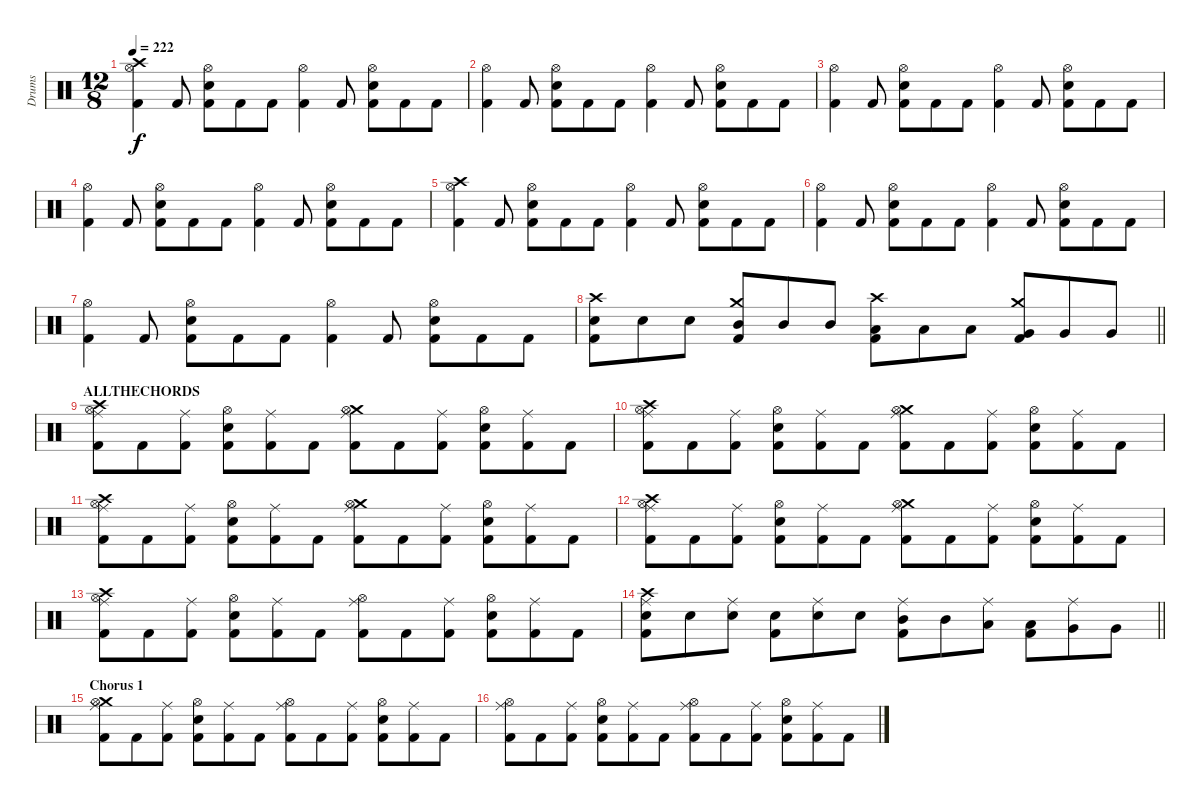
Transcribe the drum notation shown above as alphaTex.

\track ("Drums" "Drums") {instrument percussion}
\staff {score}
\articulation defaults
\ts (12 8)
\tempo 222
\clef neutral
\ks c
("Crash high (hit)" "Hi-Hat (open)" "Kick (hit) 2").4{dy f} "Kick (hit) 2".8 ("Hi-Hat (open)" "Snare (hit) 2" "Kick (hit) 2").8 "Kick (hit) 2".8 "Kick (hit) 2".8 ("Hi-Hat (open)" "Kick (hit) 2").4 "Kick (hit) 2".8 ("Hi-Hat (open)" "Snare (hit) 2" "Kick (hit) 2").8 "Kick (hit) 2".8 "Kick (hit) 2".8 |
("Hi-Hat (open)" "Kick (hit) 2").4 "Kick (hit) 2".8 ("Hi-Hat (open)" "Snare (hit) 2" "Kick (hit) 2").8 "Kick (hit) 2".8 "Kick (hit) 2".8 ("Hi-Hat (open)" "Kick (hit) 2").4 "Kick (hit) 2".8 ("Hi-Hat (open)" "Snare (hit) 2" "Kick (hit) 2").8 "Kick (hit) 2".8 "Kick (hit) 2".8 |
("Hi-Hat (open)" "Kick (hit) 2").4 "Kick (hit) 2".8 ("Hi-Hat (open)" "Snare (hit) 2" "Kick (hit) 2").8 "Kick (hit) 2".8 "Kick (hit) 2".8 ("Hi-Hat (open)" "Kick (hit) 2").4 "Kick (hit) 2".8 ("Hi-Hat (open)" "Snare (hit) 2" "Kick (hit) 2").8 "Kick (hit) 2".8 "Kick (hit) 2".8 |
("Hi-Hat (open)" "Kick (hit) 2").4 "Kick (hit) 2".8 ("Hi-Hat (open)" "Snare (hit) 2" "Kick (hit) 2").8 "Kick (hit) 2".8 "Kick (hit) 2".8 ("Hi-Hat (open)" "Kick (hit) 2").4 "Kick (hit) 2".8 ("Hi-Hat (open)" "Snare (hit) 2" "Kick (hit) 2").8 "Kick (hit) 2".8 "Kick (hit) 2".8 |
("Crash high (hit)" "Hi-Hat (open)" "Kick (hit) 2").4 "Kick (hit) 2".8 ("Hi-Hat (open)" "Snare (hit) 2" "Kick (hit) 2").8 "Kick (hit) 2".8 "Kick (hit) 2".8 ("Hi-Hat (open)" "Kick (hit) 2").4 "Kick (hit) 2".8 ("Hi-Hat (open)" "Snare (hit) 2" "Kick (hit) 2").8 "Kick (hit) 2".8 "Kick (hit) 2".8 |
("Hi-Hat (open)" "Kick (hit) 2").4 "Kick (hit) 2".8 ("Hi-Hat (open)" "Snare (hit) 2" "Kick (hit) 2").8 "Kick (hit) 2".8 "Kick (hit) 2".8 ("Hi-Hat (open)" "Kick (hit) 2").4 "Kick (hit) 2".8 ("Hi-Hat (open)" "Snare (hit) 2" "Kick (hit) 2").8 "Kick (hit) 2".8 "Kick (hit) 2".8 |
("Hi-Hat (open)" "Kick (hit) 2").4 "Kick (hit) 2".8 ("Hi-Hat (open)" "Snare (hit) 2" "Kick (hit) 2").8 "Kick (hit) 2".8 "Kick (hit) 2".8 ("Hi-Hat (open)" "Kick (hit) 2").4 "Kick (hit) 2".8 ("Hi-Hat (open)" "Snare (hit) 2" "Kick (hit) 2").8 "Kick (hit) 2".8 "Kick (hit) 2".8 |
\barLineRight lightlight
("Crash high (hit)" "Snare (hit) 2" "Kick (hit) 2").8 "Snare (hit) 2".8 "Snare (hit) 2".8 ("Crash medium (hit)" "Mid Tom (hit)" "Kick (hit) 2").8 "Mid Tom (hit)".8 "Mid Tom (hit)".8 ("Crash high (hit)" "Low Tom (hit)" "Kick (hit) 2").8 "Low Tom (hit)".8 "Low Tom (hit)".8 ("Crash medium (hit)" "Very Low Tom (hit)" "Kick (hit) 2").8 "Very Low Tom (hit)".8 "Very Low Tom (hit)".8 |
\section ("" "ALLTHECHORDS")
("Crash high (hit)" "Hi-Hat (open)" "Ride (middle)" "Kick (hit) 2").8 "Kick (hit) 2".8 ("Ride (middle)" "Kick (hit) 2").8 ("Hi-Hat (open)" "Snare (hit) 2" "Kick (hit) 2").8 ("Ride (middle)" "Kick (hit) 2").8 "Kick (hit) 2".8 ("Crash medium (hit)" "Hi-Hat (open)" "Ride (middle)" "Kick (hit) 2").8 "Kick (hit) 2".8 ("Ride (middle)" "Kick (hit) 2").8 ("Hi-Hat (open)" "Snare (hit) 2" "Kick (hit) 2").8 ("Ride (middle)" "Kick (hit) 2").8 "Kick (hit) 2".8 |
("Crash high (hit)" "Hi-Hat (open)" "Ride (middle)" "Kick (hit) 2").8 "Kick (hit) 2".8 ("Ride (middle)" "Kick (hit) 2").8 ("Hi-Hat (open)" "Snare (hit) 2" "Kick (hit) 2").8 ("Ride (middle)" "Kick (hit) 2").8 "Kick (hit) 2".8 ("Crash medium (hit)" "Hi-Hat (open)" "Ride (middle)" "Kick (hit) 2").8 "Kick (hit) 2".8 ("Ride (middle)" "Kick (hit) 2").8 ("Hi-Hat (open)" "Snare (hit) 2" "Kick (hit) 2").8 ("Ride (middle)" "Kick (hit) 2").8 "Kick (hit) 2".8 |
("Crash high (hit)" "Hi-Hat (open)" "Ride (middle)" "Kick (hit) 2").8 "Kick (hit) 2".8 ("Ride (middle)" "Kick (hit) 2").8 ("Hi-Hat (open)" "Snare (hit) 2" "Kick (hit) 2").8 ("Ride (middle)" "Kick (hit) 2").8 "Kick (hit) 2".8 ("Crash medium (hit)" "Hi-Hat (open)" "Ride (middle)" "Kick (hit) 2").8 "Kick (hit) 2".8 ("Ride (middle)" "Kick (hit) 2").8 ("Hi-Hat (open)" "Snare (hit) 2" "Kick (hit) 2").8 ("Ride (middle)" "Kick (hit) 2").8 "Kick (hit) 2".8 |
("Crash high (hit)" "Hi-Hat (open)" "Ride (middle)" "Kick (hit) 2").8 "Kick (hit) 2".8 ("Ride (middle)" "Kick (hit) 2").8 ("Hi-Hat (open)" "Snare (hit) 2" "Kick (hit) 2").8 ("Ride (middle)" "Kick (hit) 2").8 "Kick (hit) 2".8 ("Crash medium (hit)" "Hi-Hat (open)" "Ride (middle)" "Kick (hit) 2").8 "Kick (hit) 2".8 ("Ride (middle)" "Kick (hit) 2").8 ("Hi-Hat (open)" "Snare (hit) 2" "Kick (hit) 2").8 ("Ride (middle)" "Kick (hit) 2").8 "Kick (hit) 2".8 |
("Crash high (hit)" "Hi-Hat (open)" "Ride (middle)" "Kick (hit) 2").8 "Kick (hit) 2".8 ("Ride (middle)" "Kick (hit) 2").8 ("Hi-Hat (open)" "Snare (hit) 2" "Kick (hit) 2").8 ("Ride (middle)" "Kick (hit) 2").8 "Kick (hit) 2".8 ("Hi-Hat (open)" "Ride (middle)" "Kick (hit) 2").8 "Kick (hit) 2".8 ("Ride (middle)" "Kick (hit) 2").8 ("Hi-Hat (open)" "Snare (hit) 2" "Kick (hit) 2").8 ("Ride (middle)" "Kick (hit) 2").8 "Kick (hit) 2".8 |
\barLineRight lightlight
("Crash high (hit)" "Ride (middle)" "Snare (hit) 2" "Kick (hit) 2").8 "Snare (hit) 2".8 ("Ride (middle)" "Snare (hit) 2").8 ("Snare (hit) 2" "Kick (hit) 2").8 ("Ride (middle)" "Snare (hit) 2").8 "Snare (hit) 2".8 ("Ride (middle)" "Mid Tom (hit)" "Kick (hit) 2").8 "Mid Tom (hit)".8 ("Ride (middle)" "Low Tom (hit)").8 ("Low Tom (hit)" "Kick (hit) 2").8 ("Ride (middle)" "Very Low Tom (hit)").8 "Very Low Tom (hit)".8 |
\section ("" "Chorus 1")
("Crash medium (hit)" "Hi-Hat (open)" "Ride (middle)" "Kick (hit) 2").8 "Kick (hit) 2".8 ("Ride (middle)" "Kick (hit) 2").8 ("Hi-Hat (open)" "Snare (hit) 2" "Kick (hit) 2").8 ("Ride (middle)" "Kick (hit) 2").8 "Kick (hit) 2".8 ("Hi-Hat (open)" "Ride (middle)" "Kick (hit) 2").8 "Kick (hit) 2".8 ("Ride (middle)" "Kick (hit) 2").8 ("Hi-Hat (open)" "Snare (hit) 2" "Kick (hit) 2").8 ("Ride (middle)" "Kick (hit) 2").8 "Kick (hit) 2".8 |
("Hi-Hat (open)" "Ride (middle)" "Kick (hit) 2").8 "Kick (hit) 2".8 ("Ride (middle)" "Kick (hit) 2").8 ("Hi-Hat (open)" "Snare (hit) 2" "Kick (hit) 2").8 ("Ride (middle)" "Kick (hit) 2").8 "Kick (hit) 2".8 ("Hi-Hat (open)" "Ride (middle)" "Kick (hit) 2").8 "Kick (hit) 2".8 ("Ride (middle)" "Kick (hit) 2").8 ("Hi-Hat (open)" "Snare (hit) 2" "Kick (hit) 2").8 ("Ride (middle)" "Kick (hit) 2").8 "Kick (hit) 2".8
